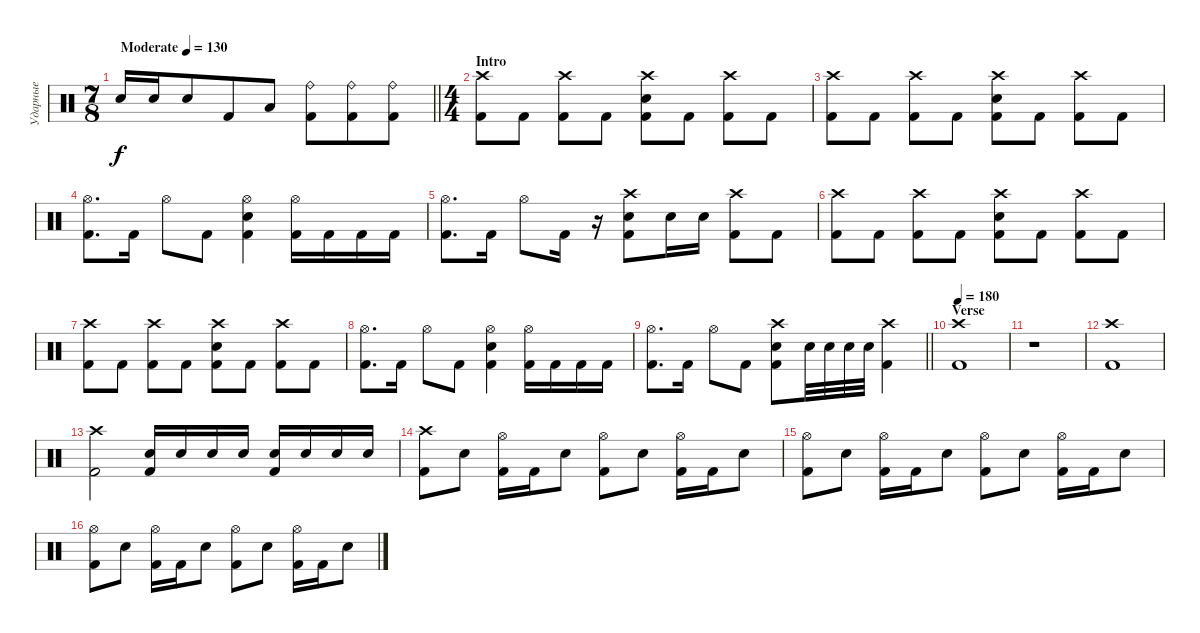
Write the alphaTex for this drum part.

\track ("Ударные" "Ударные") {instrument percussion}
\staff {score}
\articulation defaults
\ts (7 8)
\tempo (130 "Moderate")
\clef neutral
\barLineRight lightlight
\ks c "Electric Snare (hit)".16{dy f} "Electric Snare (hit)".16 "Electric Snare (hit)".8 "Kick (hit) 2".8 "Low Tom (hit)".8
("Ride (bell)" "Kick (hit) 2").8 ("Ride (bell)" "Kick (hit) 2").8 ("Ride (bell)" "Kick (hit) 2").8 |
\ts (4 4)
\section ("" "Intro")
("Crash high (hit)" "Kick (hit) 2").8 "Kick (hit) 2".8 ("Crash high (hit)" "Kick (hit) 2").8 "Kick (hit) 2".8 ("Crash high (hit)" "Electric Snare (hit)" "Kick (hit) 2").8 "Kick (hit) 2".8 ("Crash high (hit)" "Kick (hit) 2").8 "Kick (hit) 2".8 |
("Crash high (hit)" "Kick (hit) 2").8 "Kick (hit) 2".8 ("Crash high (hit)" "Kick (hit) 2").8 "Kick (hit) 2".8 ("Crash high (hit)" "Electric Snare (hit)" "Kick (hit) 2").8 "Kick (hit) 2".8 ("Crash high (hit)" "Kick (hit) 2").8 "Kick (hit) 2".8 |
("Hi-Hat (open)" "Kick (hit) 2").8{d} "Kick (hit) 2".16 "Hi-Hat (open)".8 "Kick (hit) 2".8 ("Hi-Hat (open)" "Electric Snare (hit)" "Kick (hit) 2").4 ("Hi-Hat (open)" "Kick (hit) 2").16 "Kick (hit) 2".16 "Kick (hit) 2".16 "Kick (hit) 2".16 |
("Hi-Hat (open)" "Kick (hit) 2").8{d} "Kick (hit) 2".16 "Hi-Hat (open)".8 "Kick (hit) 2".16 r.16 ("Crash high (hit)" "Electric Snare (hit)" "Kick (hit) 2").8 "Electric Snare (hit)".16 "Electric Snare (hit)".16 ("Crash high (hit)" "Kick (hit) 2").8 "Kick (hit) 2".8 |
("Crash high (hit)" "Kick (hit) 2").8 "Kick (hit) 2".8 ("Crash high (hit)" "Kick (hit) 2").8 "Kick (hit) 2".8 ("Crash high (hit)" "Electric Snare (hit)" "Kick (hit) 2").8 "Kick (hit) 2".8 ("Crash high (hit)" "Kick (hit) 2").8 "Kick (hit) 2".8 |
("Crash high (hit)" "Kick (hit) 2").8 "Kick (hit) 2".8 ("Crash high (hit)" "Kick (hit) 2").8 "Kick (hit) 2".8 ("Crash high (hit)" "Electric Snare (hit)" "Kick (hit) 2").8 "Kick (hit) 2".8 ("Crash high (hit)" "Kick (hit) 2").8 "Kick (hit) 2".8 |
("Hi-Hat (open)" "Kick (hit) 2").8{d} "Kick (hit) 2".16 "Hi-Hat (open)".8 "Kick (hit) 2".8 ("Hi-Hat (open)" "Electric Snare (hit)" "Kick (hit) 2").4 ("Hi-Hat (open)" "Kick (hit) 2").16 "Kick (hit) 2".16 "Kick (hit) 2".16 "Kick (hit) 2".16 |
\barLineRight lightlight
("Hi-Hat (open)" "Kick (hit) 2").8{d} "Kick (hit) 2".16 "Hi-Hat (open)".8 "Kick (hit) 2".8 ("Crash high (hit)" "Electric Snare (hit)" "Kick (hit) 2").8 "Electric Snare (hit)".32 "Electric Snare (hit)".32 "Electric Snare (hit)".32 "Electric Snare (hit)".32 ("Crash high (hit)" "Kick (hit) 2").4 |
\section ("" "Verse")
\tempo 180
("Crash high (hit)" "Kick (hit) 2").1 |
r.1 |
("Crash high (hit)" "Kick (hit) 2").1 |
("Crash high (hit)" "Kick (hit) 2").2 ("Electric Snare (hit)" "Kick (hit) 2").16 "Electric Snare (hit)".16 "Electric Snare (hit)".16 "Electric Snare (hit)".16 ("Electric Snare (hit)" "Kick (hit) 2").16 "Electric Snare (hit)".16 "Electric Snare (hit)".16 "Electric Snare (hit)".16 |
("Crash high (hit)" "Kick (hit) 2").8 "Electric Snare (hit)".8 ("Hi-Hat (open)" "Kick (hit) 2").16 "Kick (hit) 2".16 "Electric Snare (hit)".8 ("Hi-Hat (open)" "Kick (hit) 2").8 "Electric Snare (hit)".8 ("Hi-Hat (open)" "Kick (hit) 2").16 "Kick (hit) 2".16 "Electric Snare (hit)".8 |
("Hi-Hat (open)" "Kick (hit) 2").8 "Electric Snare (hit)".8 ("Hi-Hat (open)" "Kick (hit) 2").16 "Kick (hit) 2".16 "Electric Snare (hit)".8 ("Hi-Hat (open)" "Kick (hit) 2").8 "Electric Snare (hit)".8 ("Hi-Hat (open)" "Kick (hit) 2").16 "Kick (hit) 2".16 "Electric Snare (hit)".8 |
("Hi-Hat (open)" "Kick (hit) 2").8 "Electric Snare (hit)".8 ("Hi-Hat (open)" "Kick (hit) 2").16 "Kick (hit) 2".16 "Electric Snare (hit)".8 ("Hi-Hat (open)" "Kick (hit) 2").8 "Electric Snare (hit)".8 ("Hi-Hat (open)" "Kick (hit) 2").16 "Kick (hit) 2".16 "Electric Snare (hit)".8
